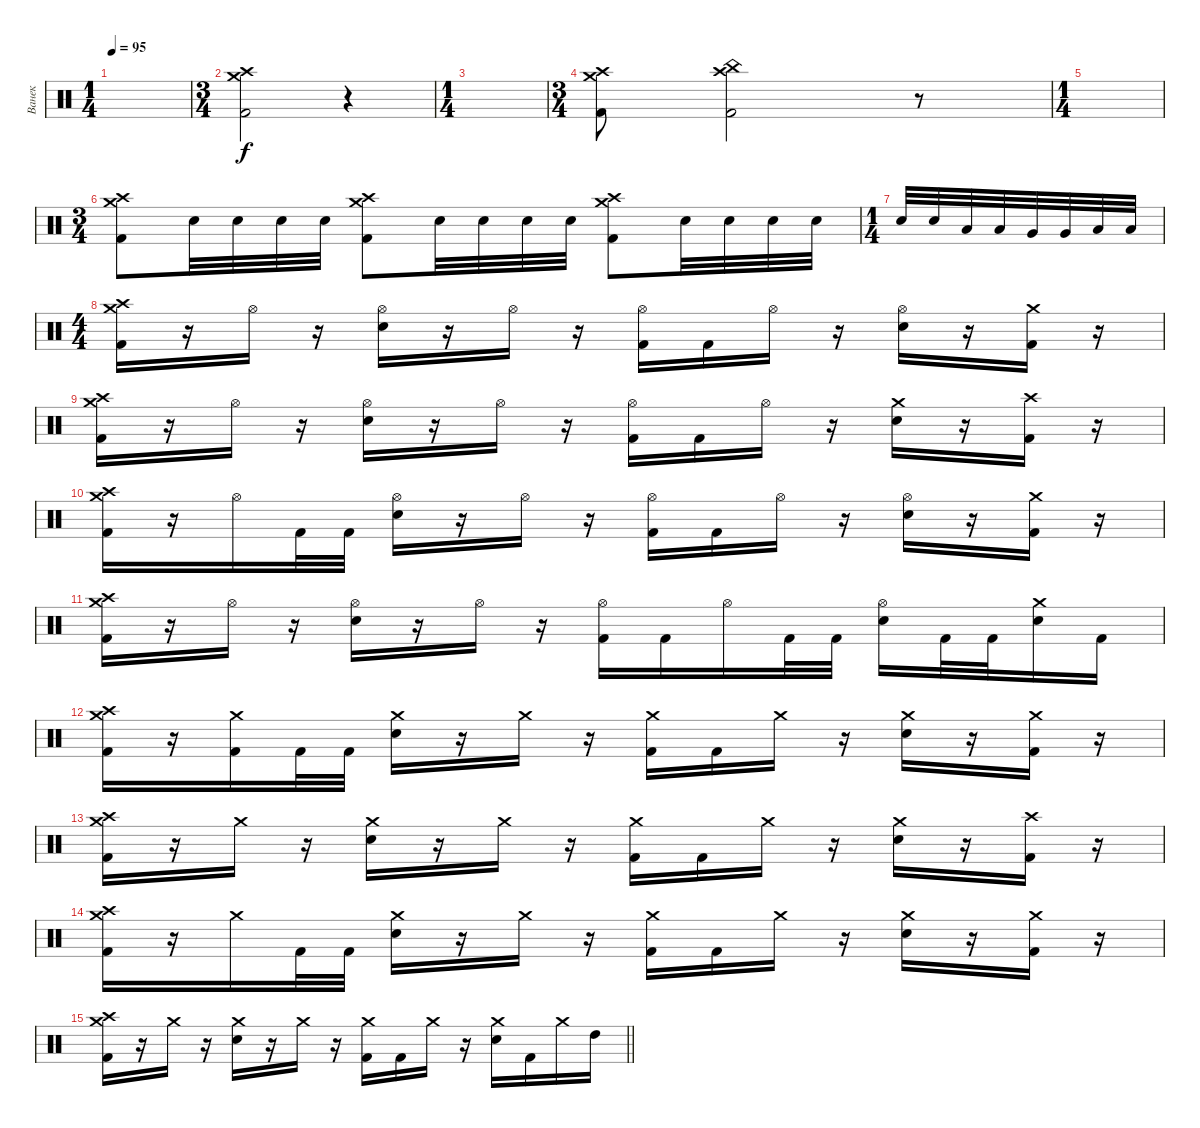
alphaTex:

\track ("Ванек" "Ванек") {instrument percussion}
\staff {score}
\articulation defaults
\ts (1 4)
\tempo 95
\clef neutral
\ks c
|
\ts (3 4)
("Crash medium (hit)" "Crash high (hit)" "Kick (hit) 2").2 r.4 |
\ts (1 4)
|
\ts (3 4)
("Crash high (hit)" "Crash medium (hit)" "Kick (hit) 2").8 ("Crash high (hit)" "China (hit)" "Kick (hit) 2").2 r.8 |
\ts (1 4)
|
\ts (3 4)
("Crash high (hit)" "Crash medium (hit)" "Kick (hit) 2").8 "Snare (hit) 2".32 "Snare (hit) 2".32 "Snare (hit) 2".32 "Snare (hit) 2".32 ("Crash high (hit)" "Crash medium (hit)" "Kick (hit) 2").8 "Snare (hit) 2".32 "Snare (hit) 2".32 "Snare (hit) 2".32 "Snare (hit) 2".32 ("Crash high (hit)" "Crash medium (hit)" "Kick (hit) 2").8 "Snare (hit) 2".32 "Snare (hit) 2".32 "Snare (hit) 2".32 "Snare (hit) 2".32 |
\ts (1 4)
"Snare (hit) 2".32 "Snare (hit) 2".32 "Low Floor Tom (hit)".32 "Low Floor Tom (hit)".32 "Very Low Tom (hit)".32 "Very Low Tom (hit)".32 "Low Tom (hit)".32 "Low Tom (hit)".32 |
\ts (4 4)
("Crash high (hit)" "Crash medium (hit)" "Kick (hit) 2").16 r.16 "Hi-Hat (open)".16 r.16 ("Hi-Hat (open)" "Snare (hit) 2").16 r.16 "Hi-Hat (open)".16 r.16 ("Hi-Hat (open)" "Kick (hit) 2").16 "Kick (hit) 2".16 "Hi-Hat (open)".16 r.16 ("Hi-Hat (open)" "Snare (hit) 2").16 r.16 ("Crash medium (hit)" "Kick (hit) 2").16 r.16 |
("Crash high (hit)" "Crash medium (hit)" "Kick (hit) 2").16 r.16 "Hi-Hat (open)".16 r.16 ("Hi-Hat (open)" "Snare (hit) 2").16 r.16 "Hi-Hat (open)".16 r.16 ("Hi-Hat (open)" "Kick (hit) 2").16 "Kick (hit) 2".16 "Hi-Hat (open)".16 r.16 ("Crash medium (hit)" "Snare (hit) 2").16 r.16 ("Crash high (hit)" "Kick (hit) 2").16 r.16 |
("Crash high (hit)" "Crash medium (hit)" "Kick (hit) 2").16 r.16 "Hi-Hat (open)".16 "Kick (hit) 2".32 "Kick (hit) 2".32 ("Hi-Hat (open)" "Snare (hit) 2").16 r.16 "Hi-Hat (open)".16 r.16 ("Hi-Hat (open)" "Kick (hit) 2").16 "Kick (hit) 2".16 "Hi-Hat (open)".16 r.16 ("Hi-Hat (open)" "Snare (hit) 2").16 r.16 ("Crash medium (hit)" "Kick (hit) 2").16 r.16 |
("Crash high (hit)" "Crash medium (hit)" "Kick (hit) 2").16 r.16 "Hi-Hat (open)".16 r.16 ("Hi-Hat (open)" "Snare (hit) 2").16 r.16 "Hi-Hat (open)".16 r.16 ("Hi-Hat (open)" "Kick (hit) 2").16 "Kick (hit) 2".16 "Hi-Hat (open)".16 "Kick (hit) 2".32 "Kick (hit) 2".32 ("Hi-Hat (open)" "Snare (hit) 2").16 "Kick (hit) 2".32 "Kick (hit) 2".32 ("Crash medium (hit)" "Snare (hit) 2").16 "Kick (hit) 2".16 |
("Crash high (hit)" "Crash medium (hit)" "Kick (hit) 2").16 r.16 ("Crash medium (hit)" "Kick (hit) 2").16 "Kick (hit) 2".32 "Kick (hit) 2".32 ("Crash medium (hit)" "Snare (hit) 2").16 r.16 "Crash medium (hit)".16 r.16 ("Crash medium (hit)" "Kick (hit) 2").16 "Kick (hit) 2".16 "Crash medium (hit)".16 r.16 ("Crash medium (hit)" "Snare (hit) 2").16 r.16 ("Crash medium (hit)" "Kick (hit) 2").16 r.16 |
("Crash high (hit)" "Crash medium (hit)" "Kick (hit) 2").16 r.16 "Crash medium (hit)".16 r.16 ("Crash medium (hit)" "Snare (hit) 2").16 r.16 "Crash medium (hit)".16 r.16 ("Crash medium (hit)" "Kick (hit) 2").16 "Kick (hit) 2".16 "Crash medium (hit)".16 r.16 ("Crash medium (hit)" "Snare (hit) 2").16 r.16 ("Crash high (hit)" "Kick (hit) 2").16 r.16 |
("Crash high (hit)" "Crash medium (hit)" "Kick (hit) 2").16 r.16 "Crash medium (hit)".16 "Kick (hit) 2".32 "Kick (hit) 2".32 ("Crash medium (hit)" "Snare (hit) 2").16 r.16 "Crash medium (hit)".16 r.16 ("Crash medium (hit)" "Kick (hit) 2").16 "Kick (hit) 2".16 "Crash medium (hit)".16 r.16 ("Crash medium (hit)" "Snare (hit) 2").16 r.16 ("Crash medium (hit)" "Kick (hit) 2").16 r.16 |
\barLineRight lightlight
("Crash high (hit)" "Crash medium (hit)" "Kick (hit) 2").16 r.16 "Crash medium (hit)".16 r.16 ("Crash medium (hit)" "Snare (hit) 2").16 r.16 "Crash medium (hit)".16 r.16 ("Crash medium (hit)" "Kick (hit) 2").16 "Kick (hit) 2".16 "Crash medium (hit)".16 r.16 ("Crash medium (hit)" "Snare (hit) 2").16 "Kick (hit) 2".16 "Crash medium (hit)".16 "High Tom (hit)".16
